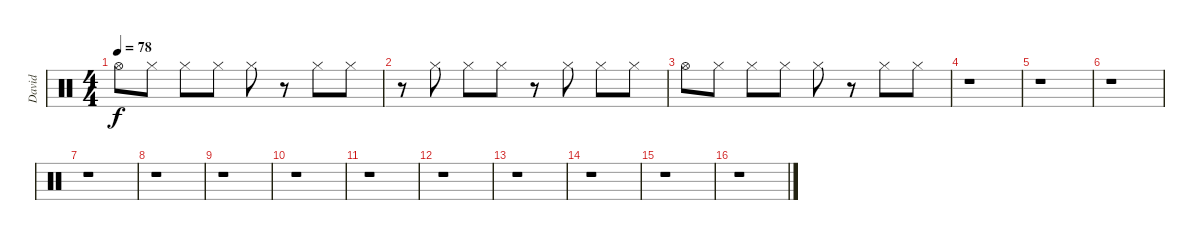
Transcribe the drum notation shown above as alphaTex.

\track ("David" "David") {instrument percussion}
\staff {score}
\articulation defaults
\ts (4 4)
\tempo 78
\clef neutral
\ks c "Hi-Hat (open)".8{dy f} "Hi-Hat (closed)".8 "Hi-Hat (closed)".8 "Hi-Hat (closed)".8 "Hi-Hat (closed)".8
r.8 "Hi-Hat (closed)".8 "Hi-Hat (closed)".8 |
r.8 "Hi-Hat (closed)".8 "Hi-Hat (closed)".8 "Hi-Hat (closed)".8 r.8 "Hi-Hat (closed)".8 "Hi-Hat (closed)".8 "Hi-Hat (closed)".8 |
"Hi-Hat (open)".8 "Hi-Hat (closed)".8 "Hi-Hat (closed)".8 "Hi-Hat (closed)".8 "Hi-Hat (closed)".8 r.8 "Hi-Hat (closed)".8 "Hi-Hat (closed)".8 |
r.1 |
r.1 |
r.1 |
r.1 |
r.1 |
r.1 |
r.1 |
r.1 |
r.1 |
r.1 |
r.1 |
r.1 |
r.1
